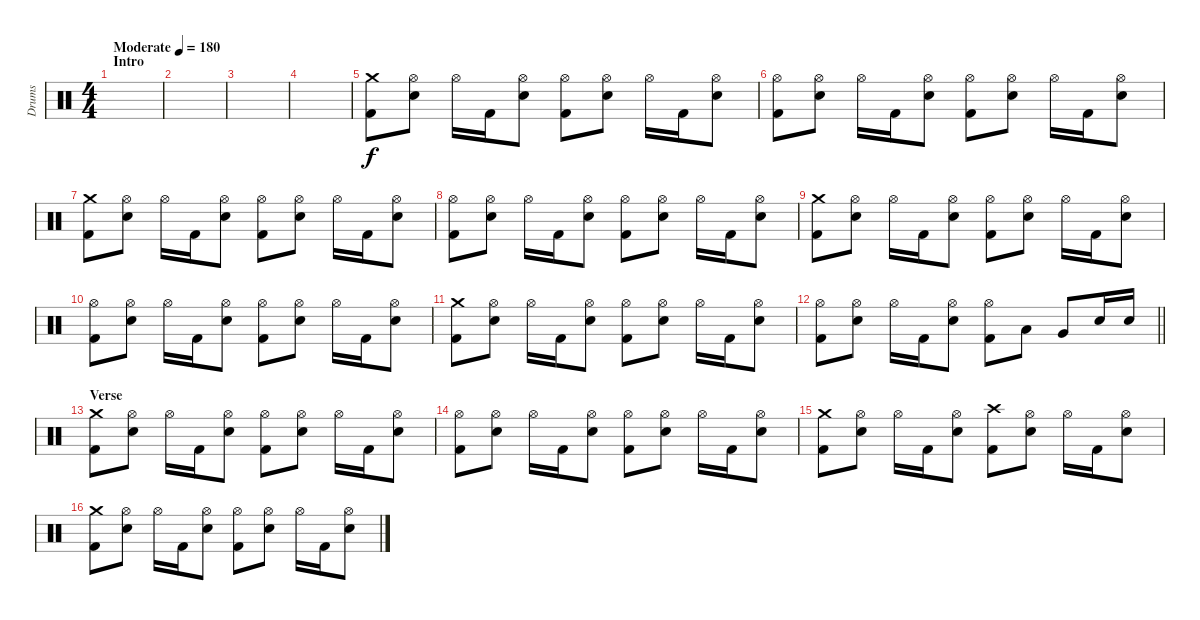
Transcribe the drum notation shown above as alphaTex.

\track ("Drums" "Drums") {instrument percussion}
\staff {score}
\articulation defaults
\ts (4 4)
\section ("" "Intro")
\tempo (180 "Moderate")
\clef neutral
\ks c
|
|
|
|
("Crash medium (hit)" "Kick (hit) 2").8 ("Hi-Hat (open)" "Electric Snare (hit)").8 "Hi-Hat (open)".16 "Kick (hit) 2".16 ("Hi-Hat (open)" "Electric Snare (hit)").8 ("Hi-Hat (open)" "Kick (hit) 2").8 ("Hi-Hat (open)" "Electric Snare (hit)").8 "Hi-Hat (open)".16 "Kick (hit) 2".16 ("Hi-Hat (open)" "Electric Snare (hit)").8 |
("Hi-Hat (open)" "Kick (hit) 2").8 ("Hi-Hat (open)" "Electric Snare (hit)").8 "Hi-Hat (open)".16 "Kick (hit) 2".16 ("Hi-Hat (open)" "Electric Snare (hit)").8 ("Hi-Hat (open)" "Kick (hit) 2").8 ("Hi-Hat (open)" "Electric Snare (hit)").8 "Hi-Hat (open)".16 "Kick (hit) 2".16 ("Hi-Hat (open)" "Electric Snare (hit)").8 |
("Crash medium (hit)" "Kick (hit) 2").8 ("Hi-Hat (open)" "Electric Snare (hit)").8 "Hi-Hat (open)".16 "Kick (hit) 2".16 ("Hi-Hat (open)" "Electric Snare (hit)").8 ("Hi-Hat (open)" "Kick (hit) 2").8 ("Hi-Hat (open)" "Electric Snare (hit)").8 "Hi-Hat (open)".16 "Kick (hit) 2".16 ("Hi-Hat (open)" "Electric Snare (hit)").8 |
("Hi-Hat (open)" "Kick (hit) 2").8 ("Hi-Hat (open)" "Electric Snare (hit)").8 "Hi-Hat (open)".16 "Kick (hit) 2".16 ("Hi-Hat (open)" "Electric Snare (hit)").8 ("Hi-Hat (open)" "Kick (hit) 2").8 ("Hi-Hat (open)" "Electric Snare (hit)").8 "Hi-Hat (open)".16 "Kick (hit) 2".16 ("Hi-Hat (open)" "Electric Snare (hit)").8 |
("Crash medium (hit)" "Kick (hit) 2").8 ("Hi-Hat (open)" "Electric Snare (hit)").8 "Hi-Hat (open)".16 "Kick (hit) 2".16 ("Hi-Hat (open)" "Electric Snare (hit)").8 ("Hi-Hat (open)" "Kick (hit) 2").8 ("Hi-Hat (open)" "Electric Snare (hit)").8 "Hi-Hat (open)".16 "Kick (hit) 2".16 ("Hi-Hat (open)" "Electric Snare (hit)").8 |
("Hi-Hat (open)" "Kick (hit) 2").8 ("Hi-Hat (open)" "Electric Snare (hit)").8 "Hi-Hat (open)".16 "Kick (hit) 2".16 ("Hi-Hat (open)" "Electric Snare (hit)").8 ("Hi-Hat (open)" "Kick (hit) 2").8 ("Hi-Hat (open)" "Electric Snare (hit)").8 "Hi-Hat (open)".16 "Kick (hit) 2".16 ("Hi-Hat (open)" "Electric Snare (hit)").8 |
("Crash medium (hit)" "Kick (hit) 2").8 ("Hi-Hat (open)" "Electric Snare (hit)").8 "Hi-Hat (open)".16 "Kick (hit) 2".16 ("Hi-Hat (open)" "Electric Snare (hit)").8 ("Hi-Hat (open)" "Kick (hit) 2").8 ("Hi-Hat (open)" "Electric Snare (hit)").8 "Hi-Hat (open)".16 "Kick (hit) 2".16 ("Hi-Hat (open)" "Electric Snare (hit)").8 |
\barLineRight lightlight
("Hi-Hat (open)" "Kick (hit) 2").8 ("Hi-Hat (open)" "Electric Snare (hit)").8 "Hi-Hat (open)".16 "Kick (hit) 2".16 ("Hi-Hat (open)" "Electric Snare (hit)").8 ("Hi-Hat (open)" "Kick (hit) 2").8 "Low Tom (hit)".8 "Very Low Tom (hit)".8 "Electric Snare (hit)".16 "Electric Snare (hit)".16 |
\section ("" "Verse")
("Crash medium (hit)" "Kick (hit) 2").8 ("Hi-Hat (open)" "Electric Snare (hit)").8 "Hi-Hat (open)".16 "Kick (hit) 2".16 ("Hi-Hat (open)" "Electric Snare (hit)").8 ("Hi-Hat (open)" "Kick (hit) 2").8 ("Hi-Hat (open)" "Electric Snare (hit)").8 "Hi-Hat (open)".16 "Kick (hit) 2".16 ("Hi-Hat (open)" "Electric Snare (hit)").8 |
("Hi-Hat (open)" "Kick (hit) 2").8 ("Hi-Hat (open)" "Electric Snare (hit)").8 "Hi-Hat (open)".16 "Kick (hit) 2".16 ("Hi-Hat (open)" "Electric Snare (hit)").8 ("Hi-Hat (open)" "Kick (hit) 2").8 ("Hi-Hat (open)" "Electric Snare (hit)").8 "Hi-Hat (open)".16 "Kick (hit) 2".16 ("Hi-Hat (open)" "Electric Snare (hit)").8 |
("Crash medium (hit)" "Kick (hit) 2").8 ("Hi-Hat (open)" "Electric Snare (hit)").8 "Hi-Hat (open)".16 "Kick (hit) 2".16 ("Hi-Hat (open)" "Electric Snare (hit)").8 ("Crash high (hit)" "Kick (hit) 2").8 ("Hi-Hat (open)" "Electric Snare (hit)").8 "Hi-Hat (open)".16 "Kick (hit) 2".16 ("Hi-Hat (open)" "Electric Snare (hit)").8 |
("Crash medium (hit)" "Kick (hit) 2").8 ("Hi-Hat (open)" "Electric Snare (hit)").8 "Hi-Hat (open)".16 "Kick (hit) 2".16 ("Hi-Hat (open)" "Electric Snare (hit)").8 ("Hi-Hat (open)" "Kick (hit) 2").8 ("Hi-Hat (open)" "Electric Snare (hit)").8 "Hi-Hat (open)".16 "Kick (hit) 2".16 ("Hi-Hat (open)" "Electric Snare (hit)").8
